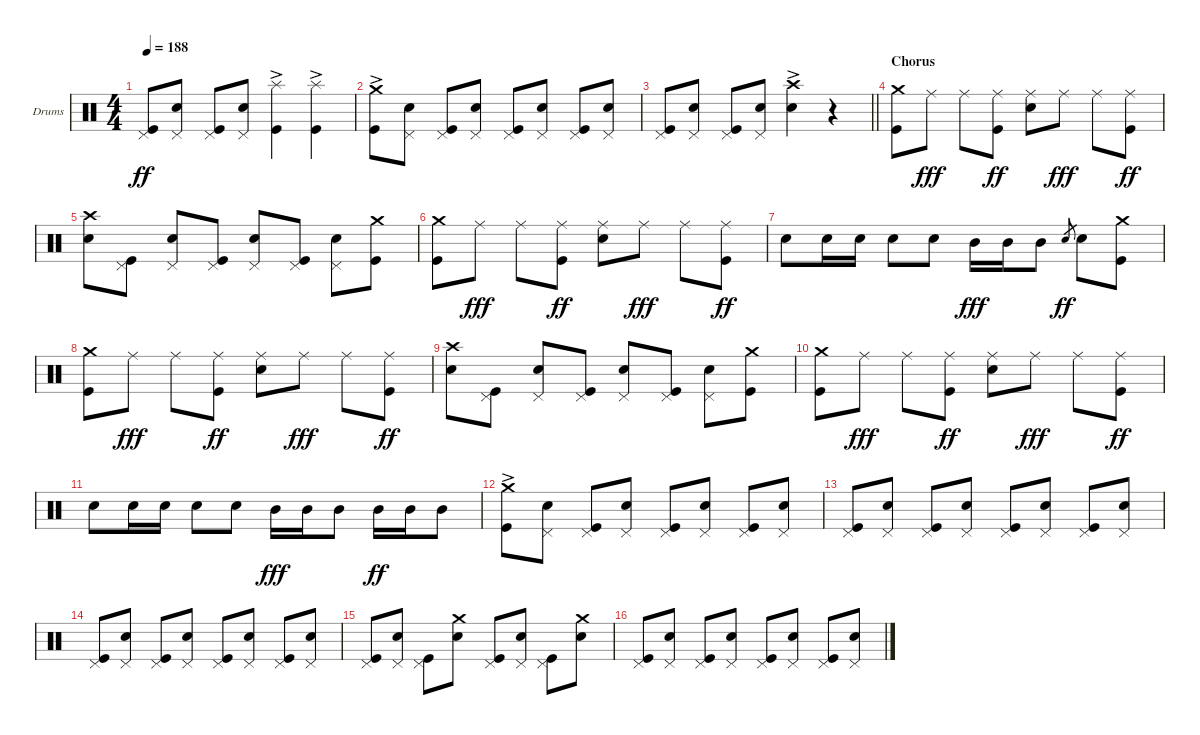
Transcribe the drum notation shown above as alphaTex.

\bracketExtendMode groupsimilarinstruments
\firstSystemTrackNameOrientation horizontal
\otherSystemsTrackNameOrientation horizontal
\track ("Drums" "Drums") {instrument percussion}
\staff {score}
\articulation defaults
\ts (4 4)
\tempo 188
\clef neutral
\ks c
("Kick (hit)" "Pedal Hi-Hat (hit)").8{dy ff} ("Snare (hit) 2" "Pedal Hi-Hat (hit)").8 ("Kick (hit)" "Pedal Hi-Hat (hit)").8 ("Snare (hit) 2" "Pedal Hi-Hat (hit)").8 ("Kick (hit)" "Splash (hit)"{ac}).4 ("Kick (hit)" "Splash (hit)"{ac}).4 |
("Kick (hit)" "Crash medium (hit)"{ac}).8 ("Snare (hit) 2" "Pedal Hi-Hat (hit)").8 ("Kick (hit)" "Pedal Hi-Hat (hit)").8 ("Snare (hit) 2" "Pedal Hi-Hat (hit)").8 ("Kick (hit)" "Pedal Hi-Hat (hit)").8 ("Snare (hit) 2" "Pedal Hi-Hat (hit)").8 ("Kick (hit)" "Pedal Hi-Hat (hit)").8 ("Snare (hit) 2" "Pedal Hi-Hat (hit)").8 |
\barLineRight lightlight
("Kick (hit)" "Pedal Hi-Hat (hit)").8 ("Snare (hit) 2" "Pedal Hi-Hat (hit)").8 ("Kick (hit)" "Pedal Hi-Hat (hit)").8 ("Snare (hit) 2" "Pedal Hi-Hat (hit)").8 ("Snare (hit) 2" "Crash high (hit)"{ac}).4 r.4 |
\section ("" "Chorus")
("Kick (hit)" "Crash medium (hit)").8 "Ride (middle)".8{dy fff} "Ride (middle)".8 ("Kick (hit)" "Ride (middle)").8{dy ff} ("Snare (hit) 2" "Ride (middle)").8 "Ride (middle)".8{dy fff} "Ride (middle)".8 ("Ride (middle)" "Kick (hit)").8{dy ff} |
("Snare (hit) 2" "Crash high (hit)").8 ("Kick (hit)" "Pedal Hi-Hat (hit)").8 ("Snare (hit) 2" "Pedal Hi-Hat (hit)").8 ("Kick (hit)" "Pedal Hi-Hat (hit)").8 ("Snare (hit) 2" "Pedal Hi-Hat (hit)").8 ("Kick (hit)" "Pedal Hi-Hat (hit)").8 ("Snare (hit) 2" "Pedal Hi-Hat (hit)").8 ("Kick (hit)" "Crash medium (hit)").8 |
("Kick (hit)" "Crash medium (hit)").8 "Ride (middle)".8{dy fff} "Ride (middle)".8 ("Kick (hit)" "Ride (middle)").8{dy ff} ("Snare (hit) 2" "Ride (middle)").8 "Ride (middle)".8{dy fff} "Ride (middle)".8 ("Ride (middle)" "Kick (hit)").8{dy ff} |
"Snare (hit) 2".8 "Snare (hit) 2".16 "Snare (hit) 2".16 "Snare (hit) 2".8 "Snare (hit) 2".8 "Mid Tom (hit)".16{dy fff} "Mid Tom (hit)".16 "Mid Tom (hit)".8 "Snare (hit) 2".8{gr dy ff} "Snare (hit) 2".8 ("Kick (hit)" "Crash medium (hit)").8 |
("Kick (hit)" "Crash medium (hit)").8 "Ride (middle)".8{dy fff} "Ride (middle)".8 ("Kick (hit)" "Ride (middle)").8{dy ff} ("Snare (hit) 2" "Ride (middle)").8 "Ride (middle)".8{dy fff} "Ride (middle)".8 ("Ride (middle)" "Kick (hit)").8{dy ff} |
("Snare (hit) 2" "Crash high (hit)").8 ("Kick (hit)" "Pedal Hi-Hat (hit)").8 ("Snare (hit) 2" "Pedal Hi-Hat (hit)").8 ("Kick (hit)" "Pedal Hi-Hat (hit)").8 ("Snare (hit) 2" "Pedal Hi-Hat (hit)").8 ("Kick (hit)" "Pedal Hi-Hat (hit)").8 ("Snare (hit) 2" "Pedal Hi-Hat (hit)").8 ("Kick (hit)" "Crash medium (hit)").8 |
("Kick (hit)" "Crash medium (hit)").8 "Ride (middle)".8{dy fff} "Ride (middle)".8 ("Kick (hit)" "Ride (middle)").8{dy ff} ("Snare (hit) 2" "Ride (middle)").8 "Ride (middle)".8{dy fff} "Ride (middle)".8 ("Ride (middle)" "Kick (hit)").8{dy ff} |
"Snare (hit) 2".8 "Snare (hit) 2".16 "Snare (hit) 2".16 "Snare (hit) 2".8 "Snare (hit) 2".8 "Mid Tom (hit)".16{dy fff} "Mid Tom (hit)".16 "Mid Tom (hit)".8 "Mid Tom (hit)".16{dy ff} "Mid Tom (hit)".16 "Mid Tom (hit)".8 |
("Kick (hit)" "Crash medium (hit)"{ac}).8 ("Snare (hit) 2" "Pedal Hi-Hat (hit)").8 ("Kick (hit)" "Pedal Hi-Hat (hit)").8 ("Snare (hit) 2" "Pedal Hi-Hat (hit)").8 ("Kick (hit)" "Pedal Hi-Hat (hit)").8 ("Snare (hit) 2" "Pedal Hi-Hat (hit)").8 ("Kick (hit)" "Pedal Hi-Hat (hit)").8 ("Snare (hit) 2" "Pedal Hi-Hat (hit)").8 |
("Kick (hit)" "Pedal Hi-Hat (hit)").8 ("Snare (hit) 2" "Pedal Hi-Hat (hit)").8 ("Kick (hit)" "Pedal Hi-Hat (hit)").8 ("Snare (hit) 2" "Pedal Hi-Hat (hit)").8 ("Kick (hit)" "Pedal Hi-Hat (hit)").8 ("Snare (hit) 2" "Pedal Hi-Hat (hit)").8 ("Kick (hit)" "Pedal Hi-Hat (hit)").8 ("Snare (hit) 2" "Pedal Hi-Hat (hit)").8 |
("Kick (hit)" "Pedal Hi-Hat (hit)").8 ("Snare (hit) 2" "Pedal Hi-Hat (hit)").8 ("Kick (hit)" "Pedal Hi-Hat (hit)").8 ("Snare (hit) 2" "Pedal Hi-Hat (hit)").8 ("Kick (hit)" "Pedal Hi-Hat (hit)").8 ("Snare (hit) 2" "Pedal Hi-Hat (hit)").8 ("Kick (hit)" "Pedal Hi-Hat (hit)").8 ("Snare (hit) 2" "Pedal Hi-Hat (hit)").8 |
("Kick (hit)" "Pedal Hi-Hat (hit)").8 ("Snare (hit) 2" "Pedal Hi-Hat (hit)").8 ("Kick (hit)" "Pedal Hi-Hat (hit)").8 ("Snare (hit) 2" "Crash medium (hit)").8 ("Kick (hit)" "Pedal Hi-Hat (hit)").8 ("Snare (hit) 2" "Pedal Hi-Hat (hit)").8 ("Kick (hit)" "Pedal Hi-Hat (hit)").8 ("Snare (hit) 2" "Crash medium (hit)").8 |
("Kick (hit)" "Pedal Hi-Hat (hit)").8 ("Snare (hit) 2" "Pedal Hi-Hat (hit)").8 ("Kick (hit)" "Pedal Hi-Hat (hit)").8 ("Snare (hit) 2" "Pedal Hi-Hat (hit)").8 ("Kick (hit)" "Pedal Hi-Hat (hit)").8 ("Snare (hit) 2" "Pedal Hi-Hat (hit)").8 ("Kick (hit)" "Pedal Hi-Hat (hit)").8 ("Snare (hit) 2" "Pedal Hi-Hat (hit)").8
